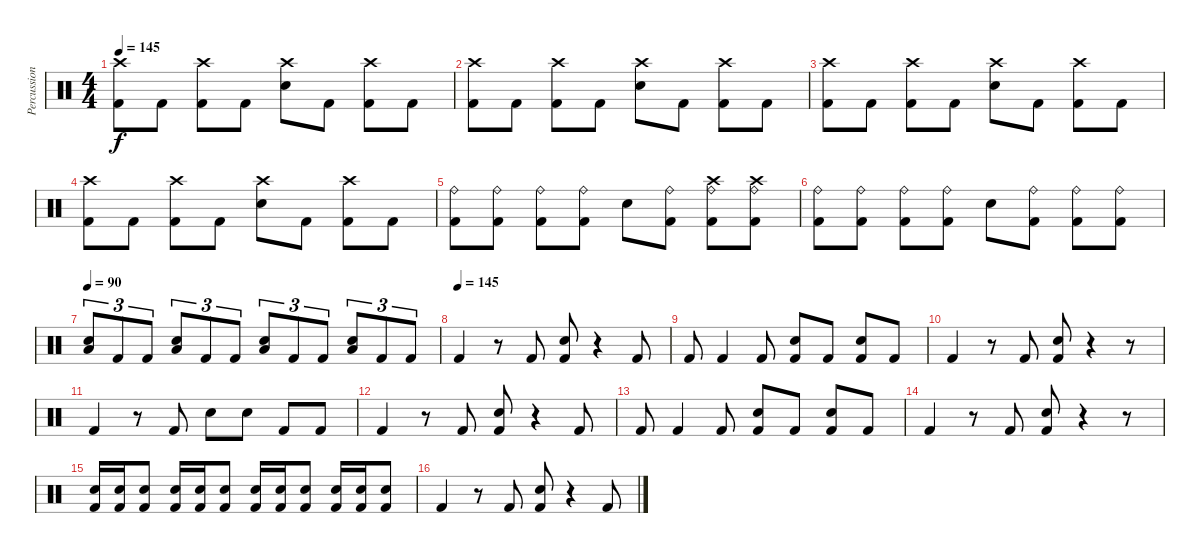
\track ("Percussion" "Percussion") {instrument percussion}
\staff {score}
\articulation defaults
\ts (4 4)
\tempo 145
\clef neutral
\ks c
("Crash high (hit)" "Kick (hit) 2").8{dy f} "Kick (hit) 2".8 ("Crash high (hit)" "Kick (hit) 2").8 "Kick (hit) 2".8 ("Crash high (hit)" "Snare (hit) 2").8 "Kick (hit) 2".8 ("Crash high (hit)" "Kick (hit) 2").8 "Kick (hit) 2".8 |
("Crash high (hit)" "Kick (hit) 2").8 "Kick (hit) 2".8 ("Crash high (hit)" "Kick (hit) 2").8 "Kick (hit) 2".8 ("Crash high (hit)" "Snare (hit) 2").8 "Kick (hit) 2".8 ("Crash high (hit)" "Kick (hit) 2").8 "Kick (hit) 2".8 |
("Crash high (hit)" "Kick (hit) 2").8 "Kick (hit) 2".8 ("Crash high (hit)" "Kick (hit) 2").8 "Kick (hit) 2".8 ("Crash high (hit)" "Snare (hit) 2").8 "Kick (hit) 2".8 ("Crash high (hit)" "Kick (hit) 2").8 "Kick (hit) 2".8 |
("Crash high (hit)" "Kick (hit) 2").8 "Kick (hit) 2".8 ("Crash high (hit)" "Kick (hit) 2").8 "Kick (hit) 2".8 ("Crash high (hit)" "Snare (hit) 2").8 "Kick (hit) 2".8 ("Crash high (hit)" "Kick (hit) 2").8 "Kick (hit) 2".8 |
("Ride (bell)" "Kick (hit) 2").8 ("Ride (bell)" "Kick (hit) 2").8 ("Ride (bell)" "Kick (hit) 2").8 ("Ride (bell)" "Kick (hit) 2").8 "Snare (hit) 2".8 ("Ride (bell)" "Kick (hit) 2").8 ("Crash high (hit)" "Ride (bell)" "Kick (hit) 2").8 ("Crash high (hit)" "Ride (bell)" "Kick (hit) 2").8 |
("Ride (bell)" "Kick (hit) 2").8 ("Ride (bell)" "Kick (hit) 2").8 ("Ride (bell)" "Kick (hit) 2").8 ("Ride (bell)" "Kick (hit) 2").8 "Snare (hit) 2".8 ("Ride (bell)" "Kick (hit) 2").8 ("Ride (bell)" "Kick (hit) 2").8 ("Ride (bell)" "Kick (hit) 2").8 |
\tempo 90
("Snare (hit) 2" "Low Floor Tom (hit)").8{tu (3 2)} "Kick (hit) 2".8{tu (3 2)} "Kick (hit) 2".8{tu (3 2)} ("Snare (hit) 2" "Low Floor Tom (hit)").8{tu (3 2)} "Kick (hit) 2".8{tu (3 2)} "Kick (hit) 2".8{tu (3 2)} ("Snare (hit) 2" "Low Floor Tom (hit)").8{tu (3 2)} "Kick (hit) 2".8{tu (3 2)} "Kick (hit) 2".8{tu (3 2)} ("Snare (hit) 2" "Low Floor Tom (hit)").8{tu (3 2)} "Kick (hit) 2".8{tu (3 2)} "Kick (hit) 2".8{tu (3 2)} |
\tempo (145)
"Kick (hit) 2".4 r.8 "Kick (hit) 2".8 ("Snare (hit) 2" "Kick (hit) 2").8 r.4 "Kick (hit) 2".8 |
"Kick (hit) 2".8 "Kick (hit) 2".4 "Kick (hit) 2".8 ("Snare (hit) 2" "Kick (hit) 2").8 "Kick (hit) 2".8 ("Snare (hit) 2" "Kick (hit) 2").8 "Kick (hit) 2".8 |
"Kick (hit) 2".4 r.8 "Kick (hit) 2".8 ("Snare (hit) 2" "Kick (hit) 2").8 r.4 r.8 |
"Kick (hit) 2".4 r.8 "Kick (hit) 2".8 "Snare (hit) 2".8 "Snare (hit) 2".8 "Kick (hit) 2".8 "Kick (hit) 2".8 |
"Kick (hit) 2".4 r.8 "Kick (hit) 2".8 ("Snare (hit) 2" "Kick (hit) 2").8 r.4 "Kick (hit) 2".8 |
"Kick (hit) 2".8 "Kick (hit) 2".4 "Kick (hit) 2".8 ("Snare (hit) 2" "Kick (hit) 2").8 "Kick (hit) 2".8 ("Snare (hit) 2" "Kick (hit) 2").8 "Kick (hit) 2".8 |
"Kick (hit) 2".4 r.8 "Kick (hit) 2".8 ("Snare (hit) 2" "Kick (hit) 2").8 r.4 r.8 |
("Snare (hit) 2" "Kick (hit) 2").16 ("Snare (hit) 2" "Kick (hit) 2").16 ("Snare (hit) 2" "Kick (hit) 2").8 ("Snare (hit) 2" "Kick (hit) 2").16 ("Snare (hit) 2" "Kick (hit) 2").16 ("Snare (hit) 2" "Kick (hit) 2").8 ("Snare (hit) 2" "Kick (hit) 2").16 ("Snare (hit) 2" "Kick (hit) 2").16 ("Snare (hit) 2" "Kick (hit) 2").8 ("Snare (hit) 2" "Kick (hit) 2").16 ("Snare (hit) 2" "Kick (hit) 2").16 ("Snare (hit) 2" "Kick (hit) 2").8 |
"Kick (hit) 2".4 r.8 "Kick (hit) 2".8 ("Snare (hit) 2" "Kick (hit) 2").8 r.4 "Kick (hit) 2".8
